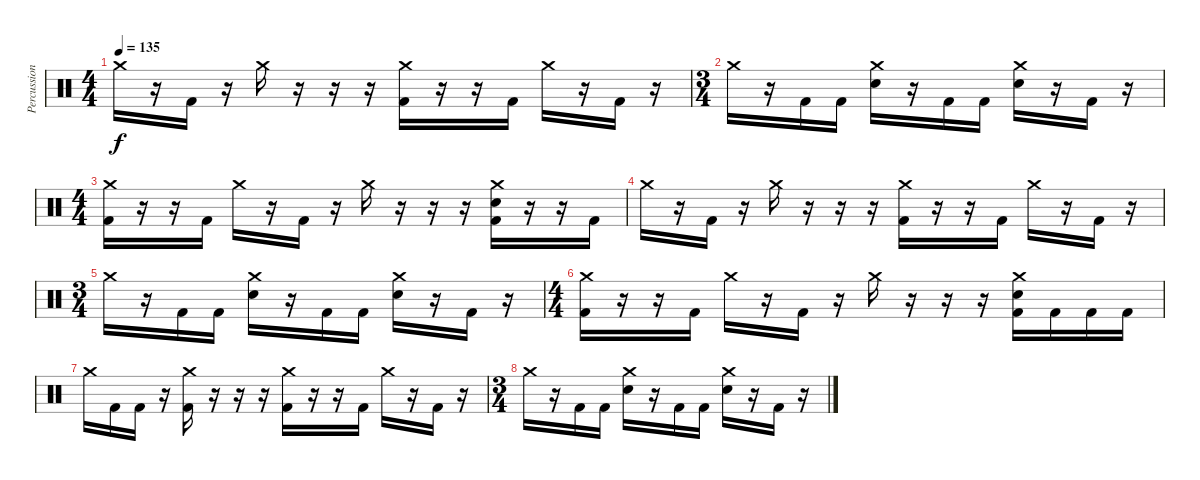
\track ("Percussion" "Percussion") {instrument percussion}
\staff {score}
\articulation defaults
\ts (4 4)
\tempo 135
\clef neutral
\ks c "Crash medium (hit)".16{dy f}
r.16 "Kick (hit) 2".16 r.16 "Crash medium (hit)".16 r.16 r.16 r.16 ("Crash medium (hit)" "Kick (hit) 2").16 r.16 r.16 "Kick (hit) 2".16 "Crash medium (hit)".16 r.16 "Kick (hit) 2".16 r.16 |
\ts (3 4)
"Crash medium (hit)".16 r.16 "Kick (hit) 2".16 "Kick (hit) 2".16 ("Crash medium (hit)" "Electric Snare (hit)").16 r.16 "Kick (hit) 2".16 "Kick (hit) 2".16 ("Crash medium (hit)" "Electric Snare (hit)").16 r.16 "Kick (hit) 2".16 r.16 |
\ts (4 4)
("Crash medium (hit)" "Kick (hit) 2").16 r.16 r.16 "Kick (hit) 2".16 "Crash medium (hit)".16 r.16 "Kick (hit) 2".16 r.16 "Crash medium (hit)".16 r.16 r.16 r.16 ("Crash medium (hit)" "Electric Snare (hit)" "Kick (hit) 2").16 r.16 r.16 "Kick (hit) 2".16 |
"Crash medium (hit)".16 r.16 "Kick (hit) 2".16 r.16 "Crash medium (hit)".16 r.16 r.16 r.16 ("Crash medium (hit)" "Kick (hit) 2").16 r.16 r.16 "Kick (hit) 2".16 "Crash medium (hit)".16 r.16 "Kick (hit) 2".16 r.16 |
\ts (3 4)
"Crash medium (hit)".16 r.16 "Kick (hit) 2".16 "Kick (hit) 2".16 ("Crash medium (hit)" "Electric Snare (hit)").16 r.16 "Kick (hit) 2".16 "Kick (hit) 2".16 ("Crash medium (hit)" "Electric Snare (hit)").16 r.16 "Kick (hit) 2".16 r.16 |
\ts (4 4)
("Crash medium (hit)" "Kick (hit) 2").16 r.16 r.16 "Kick (hit) 2".16 "Crash medium (hit)".16 r.16 "Kick (hit) 2".16 r.16 "Crash medium (hit)".16 r.16 r.16 r.16 ("Crash medium (hit)" "Electric Snare (hit)" "Kick (hit) 2").16 "Kick (hit) 2".16 "Kick (hit) 2".16 "Kick (hit) 2".16 |
"Crash medium (hit)".16 "Kick (hit) 2".16 "Kick (hit) 2".16 r.16 ("Crash medium (hit)" "Kick (hit) 2").16 r.16 r.16 r.16 ("Crash medium (hit)" "Kick (hit) 2").16 r.16 r.16 "Kick (hit) 2".16 "Crash medium (hit)".16 r.16 "Kick (hit) 2".16 r.16 |
\ts (3 4)
"Crash medium (hit)".16 r.16 "Kick (hit) 2".16 "Kick (hit) 2".16 ("Crash medium (hit)" "Electric Snare (hit)").16 r.16 "Kick (hit) 2".16 "Kick (hit) 2".16 ("Crash medium (hit)" "Electric Snare (hit)").16 r.16 "Kick (hit) 2".16 r.16
